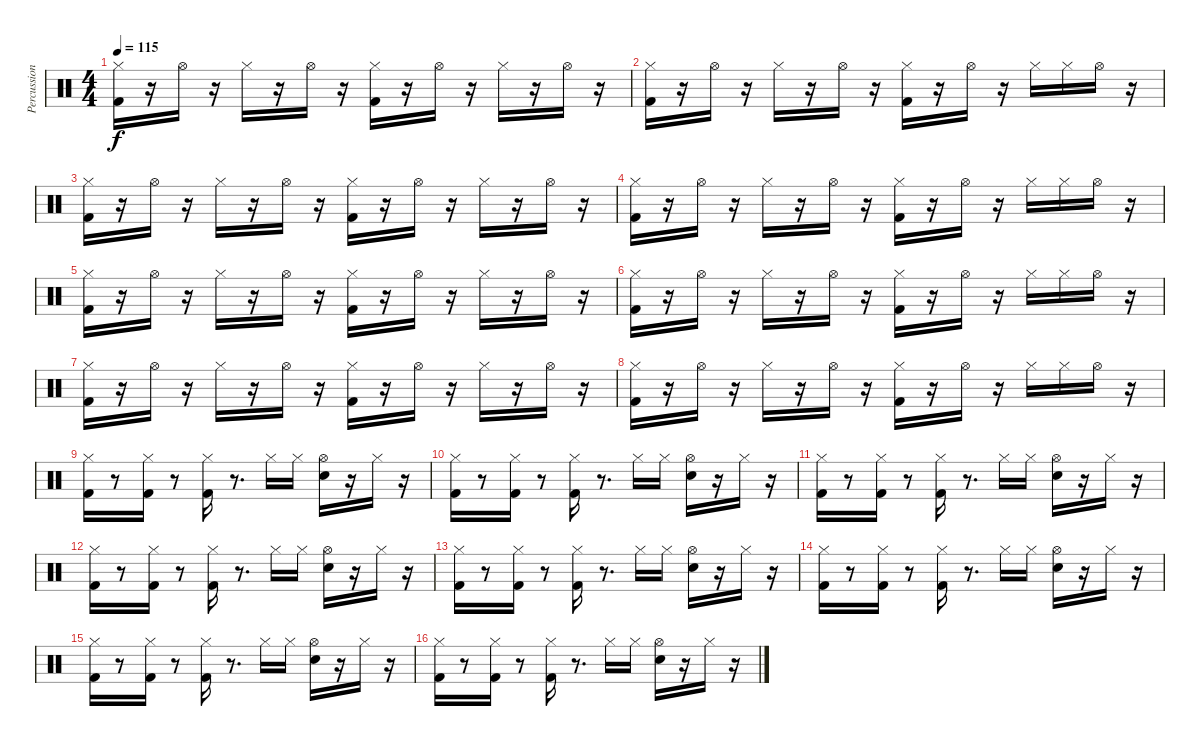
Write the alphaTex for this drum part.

\track ("Percussion" "Percussion") {instrument percussion}
\staff {score}
\articulation defaults
\ts (4 4)
\tempo 115
\clef neutral
\ks c
("Kick (hit) 2" "Hi-Hat (closed)").16{dy f} r.16 "Hi-Hat (open)".16 r.16 "Hi-Hat (closed)".16 r.16 "Hi-Hat (open)".16 r.16 ("Kick (hit) 2" "Hi-Hat (closed)").16 r.16 "Hi-Hat (open)".16 r.16 "Hi-Hat (closed)".16 r.16 "Hi-Hat (open)".16 r.16 |
("Kick (hit) 2" "Hi-Hat (closed)").16 r.16 "Hi-Hat (open)".16 r.16 "Hi-Hat (closed)".16 r.16 "Hi-Hat (open)".16 r.16 ("Kick (hit) 2" "Hi-Hat (closed)").16 r.16 "Hi-Hat (open)".16 r.16 "Hi-Hat (closed)".16 "Hi-Hat (closed)".16 "Hi-Hat (open)".16 r.16 |
("Kick (hit) 2" "Hi-Hat (closed)").16 r.16 "Hi-Hat (open)".16 r.16 "Hi-Hat (closed)".16 r.16 "Hi-Hat (open)".16 r.16 ("Kick (hit) 2" "Hi-Hat (closed)").16 r.16 "Hi-Hat (open)".16 r.16 "Hi-Hat (closed)".16 r.16 "Hi-Hat (open)".16 r.16 |
("Kick (hit) 2" "Hi-Hat (closed)").16 r.16 "Hi-Hat (open)".16 r.16 "Hi-Hat (closed)".16 r.16 "Hi-Hat (open)".16 r.16 ("Kick (hit) 2" "Hi-Hat (closed)").16 r.16 "Hi-Hat (open)".16 r.16 "Hi-Hat (closed)".16 "Hi-Hat (closed)".16 "Hi-Hat (open)".16 r.16 |
("Kick (hit) 2" "Hi-Hat (closed)").16 r.16 "Hi-Hat (open)".16 r.16 "Hi-Hat (closed)".16 r.16 "Hi-Hat (open)".16 r.16 ("Kick (hit) 2" "Hi-Hat (closed)").16 r.16 "Hi-Hat (open)".16 r.16 "Hi-Hat (closed)".16 r.16 "Hi-Hat (open)".16 r.16 |
("Kick (hit) 2" "Hi-Hat (closed)").16 r.16 "Hi-Hat (open)".16 r.16 "Hi-Hat (closed)".16 r.16 "Hi-Hat (open)".16 r.16 ("Kick (hit) 2" "Hi-Hat (closed)").16 r.16 "Hi-Hat (open)".16 r.16 "Hi-Hat (closed)".16 "Hi-Hat (closed)".16 "Hi-Hat (open)".16 r.16 |
("Kick (hit) 2" "Hi-Hat (closed)").16 r.16 "Hi-Hat (open)".16 r.16 "Hi-Hat (closed)".16 r.16 "Hi-Hat (open)".16 r.16 ("Kick (hit) 2" "Hi-Hat (closed)").16 r.16 "Hi-Hat (open)".16 r.16 "Hi-Hat (closed)".16 r.16 "Hi-Hat (open)".16 r.16 |
("Kick (hit) 2" "Hi-Hat (closed)").16 r.16 "Hi-Hat (open)".16 r.16 "Hi-Hat (closed)".16 r.16 "Hi-Hat (open)".16 r.16 ("Kick (hit) 2" "Hi-Hat (closed)").16 r.16 "Hi-Hat (open)".16 r.16 "Hi-Hat (closed)".16 "Hi-Hat (closed)".16 "Hi-Hat (open)".16 r.16 |
("Kick (hit) 2" "Hi-Hat (closed)").16 r.8 ("Kick (hit) 2" "Hi-Hat (closed)").16 r.8 ("Kick (hit) 2" "Hi-Hat (closed)").16 r.8{d} "Hi-Hat (closed)".16 "Hi-Hat (closed)".16 ("Snare (hit) 2" "Hi-Hat (open)").16 r.16 "Hi-Hat (closed)".16 r.16 |
("Kick (hit) 2" "Hi-Hat (closed)").16 r.8 ("Kick (hit) 2" "Hi-Hat (closed)").16 r.8 ("Kick (hit) 2" "Hi-Hat (closed)").16 r.8{d} "Hi-Hat (closed)".16 "Hi-Hat (closed)".16 ("Snare (hit) 2" "Hi-Hat (open)").16 r.16 "Hi-Hat (closed)".16 r.16 |
("Kick (hit) 2" "Hi-Hat (closed)").16 r.8 ("Kick (hit) 2" "Hi-Hat (closed)").16 r.8 ("Kick (hit) 2" "Hi-Hat (closed)").16 r.8{d} "Hi-Hat (closed)".16 "Hi-Hat (closed)".16 ("Snare (hit) 2" "Hi-Hat (open)").16 r.16 "Hi-Hat (closed)".16 r.16 |
("Kick (hit) 2" "Hi-Hat (closed)").16 r.8 ("Kick (hit) 2" "Hi-Hat (closed)").16 r.8 ("Kick (hit) 2" "Hi-Hat (closed)").16 r.8{d} "Hi-Hat (closed)".16 "Hi-Hat (closed)".16 ("Snare (hit) 2" "Hi-Hat (open)").16 r.16 "Hi-Hat (closed)".16 r.16 |
("Kick (hit) 2" "Hi-Hat (closed)").16 r.8 ("Kick (hit) 2" "Hi-Hat (closed)").16 r.8 ("Kick (hit) 2" "Hi-Hat (closed)").16 r.8{d} "Hi-Hat (closed)".16 "Hi-Hat (closed)".16 ("Snare (hit) 2" "Hi-Hat (open)").16 r.16 "Hi-Hat (closed)".16 r.16 |
("Kick (hit) 2" "Hi-Hat (closed)").16 r.8 ("Kick (hit) 2" "Hi-Hat (closed)").16 r.8 ("Kick (hit) 2" "Hi-Hat (closed)").16 r.8{d} "Hi-Hat (closed)".16 "Hi-Hat (closed)".16 ("Snare (hit) 2" "Hi-Hat (open)").16 r.16 "Hi-Hat (closed)".16 r.16 |
("Kick (hit) 2" "Hi-Hat (closed)").16 r.8 ("Kick (hit) 2" "Hi-Hat (closed)").16 r.8 ("Kick (hit) 2" "Hi-Hat (closed)").16 r.8{d} "Hi-Hat (closed)".16 "Hi-Hat (closed)".16 ("Snare (hit) 2" "Hi-Hat (open)").16 r.16 "Hi-Hat (closed)".16 r.16 |
("Kick (hit) 2" "Hi-Hat (closed)").16 r.8 ("Kick (hit) 2" "Hi-Hat (closed)").16 r.8 ("Kick (hit) 2" "Hi-Hat (closed)").16 r.8{d} "Hi-Hat (closed)".16 "Hi-Hat (closed)".16 ("Snare (hit) 2" "Hi-Hat (open)").16 r.16 "Hi-Hat (closed)".16 r.16
